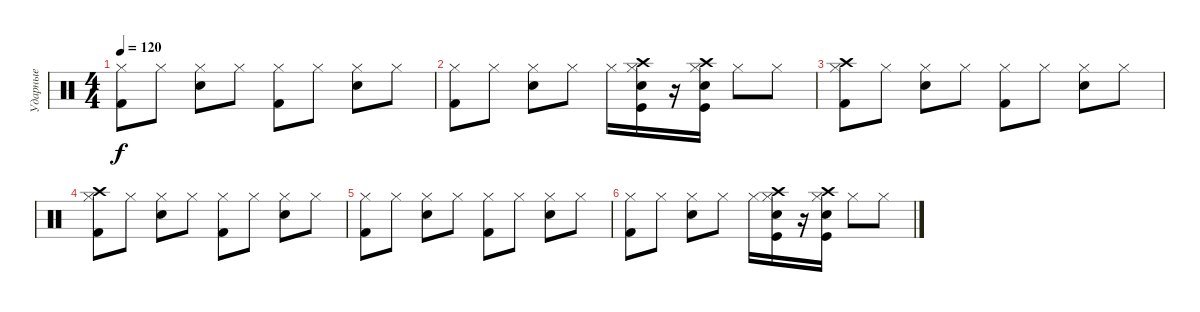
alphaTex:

\track ("Ударные" "Ударные") {instrument percussion}
\staff {score}
\articulation defaults
\ts (4 4)
\tempo 120
\clef neutral
\ks c
("Hi-Hat (closed)" "Kick (hit) 2").8{dy f} "Hi-Hat (closed)".8 ("Hi-Hat (closed)" "Electric Snare (hit)").8 "Hi-Hat (closed)".8 ("Hi-Hat (closed)" "Kick (hit) 2").8 "Hi-Hat (closed)".8 ("Hi-Hat (closed)" "Electric Snare (hit)").8 "Hi-Hat (closed)".8 |
("Hi-Hat (closed)" "Kick (hit) 2").8 "Hi-Hat (closed)".8 ("Hi-Hat (closed)" "Electric Snare (hit)").8 "Hi-Hat (closed)".8 "Hi-Hat (closed)".16 ("Hi-Hat (closed)" "Electric Snare (hit)" "Crash high (hit)" "Kick (hit)").16 r.16 ("Hi-Hat (closed)" "Electric Snare (hit)" "Crash high (hit)" "Kick (hit)").16 "Hi-Hat (closed)".8 "Hi-Hat (closed)".8 |
("Hi-Hat (closed)" "Crash high (hit)" "Kick (hit) 2").8 "Hi-Hat (closed)".8 ("Hi-Hat (closed)" "Electric Snare (hit)").8 "Hi-Hat (closed)".8 ("Hi-Hat (closed)" "Kick (hit) 2").8 "Hi-Hat (closed)".8 ("Hi-Hat (closed)" "Electric Snare (hit)").8 "Hi-Hat (closed)".8 |
("Hi-Hat (closed)" "Crash high (hit)" "Kick (hit) 2").8 "Hi-Hat (closed)".8 ("Hi-Hat (closed)" "Electric Snare (hit)").8 "Hi-Hat (closed)".8 ("Hi-Hat (closed)" "Kick (hit) 2").8 "Hi-Hat (closed)".8 ("Hi-Hat (closed)" "Electric Snare (hit)").8 "Hi-Hat (closed)".8 |
("Hi-Hat (closed)" "Kick (hit) 2").8 "Hi-Hat (closed)".8 ("Hi-Hat (closed)" "Electric Snare (hit)").8 "Hi-Hat (closed)".8 ("Hi-Hat (closed)" "Kick (hit) 2").8 "Hi-Hat (closed)".8 ("Hi-Hat (closed)" "Electric Snare (hit)").8 "Hi-Hat (closed)".8 |
("Hi-Hat (closed)" "Kick (hit) 2").8 "Hi-Hat (closed)".8 ("Hi-Hat (closed)" "Electric Snare (hit)").8 "Hi-Hat (closed)".8 "Hi-Hat (closed)".16 ("Hi-Hat (closed)" "Electric Snare (hit)" "Crash high (hit)" "Kick (hit)").16 r.16 ("Hi-Hat (closed)" "Electric Snare (hit)" "Crash high (hit)" "Kick (hit)").16 "Hi-Hat (closed)".8 "Hi-Hat (closed)".8
